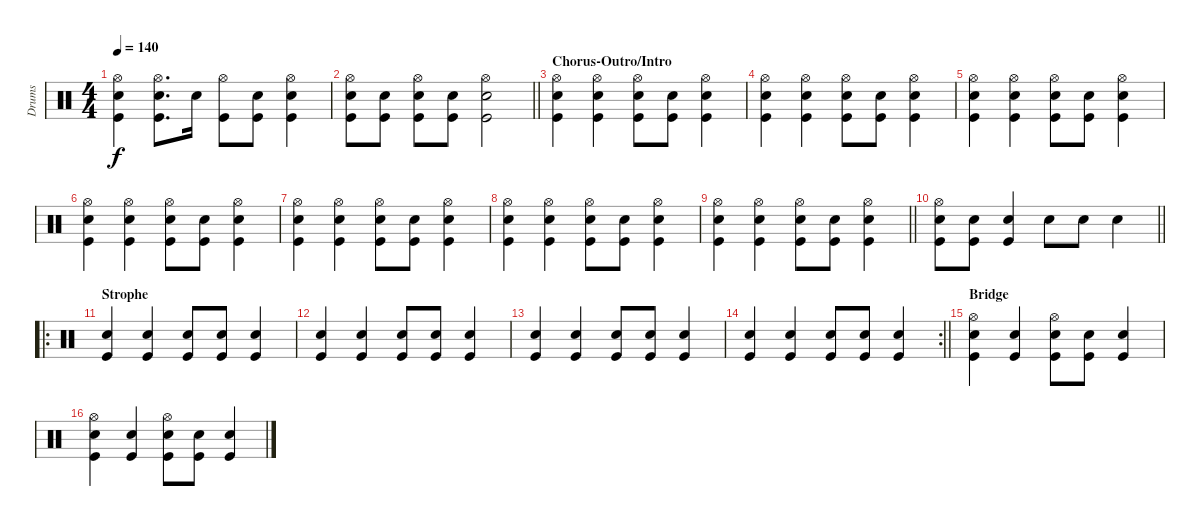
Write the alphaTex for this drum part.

\track ("Drums" "Drums") {instrument percussion}
\staff {score}
\articulation defaults
\ts (4 4)
\tempo 140
\clef neutral
\ks c
("Hi-Hat (open)" "Kick (hit)" "Snare (hit) 2").4{dy f} ("Hi-Hat (open)" "Kick (hit)" "Snare (hit) 2").8{d} "Snare (hit) 2".16 ("Hi-Hat (open)" "Kick (hit)").8 ("Kick (hit)" "Snare (hit) 2").8 ("Hi-Hat (open)" "Kick (hit)" "Snare (hit) 2").4 |
\barLineRight lightlight
("Hi-Hat (open)" "Kick (hit)" "Snare (hit) 2").8 ("Kick (hit)" "Snare (hit) 2").8 ("Hi-Hat (open)" "Kick (hit)" "Snare (hit) 2").8 ("Kick (hit)" "Snare (hit) 2").8 ("Hi-Hat (open)" "Kick (hit)" "Snare (hit) 2").2 |
\section ("" "Chorus-Outro/Intro")
("Kick (hit)" "Hi-Hat (open)" "Snare (hit) 2").4 ("Kick (hit)" "Hi-Hat (open)" "Snare (hit) 2").4 ("Kick (hit)" "Hi-Hat (open)" "Snare (hit) 2").8 ("Kick (hit)" "Snare (hit) 2").8 ("Kick (hit)" "Hi-Hat (open)" "Snare (hit) 2").4 |
("Kick (hit)" "Hi-Hat (open)" "Snare (hit) 2").4 ("Kick (hit)" "Hi-Hat (open)" "Snare (hit) 2").4 ("Kick (hit)" "Hi-Hat (open)" "Snare (hit) 2").8 ("Kick (hit)" "Snare (hit) 2").8 ("Kick (hit)" "Hi-Hat (open)" "Snare (hit) 2").4 |
("Kick (hit)" "Hi-Hat (open)" "Snare (hit) 2").4 ("Kick (hit)" "Hi-Hat (open)" "Snare (hit) 2").4 ("Kick (hit)" "Hi-Hat (open)" "Snare (hit) 2").8 ("Kick (hit)" "Snare (hit) 2").8 ("Kick (hit)" "Hi-Hat (open)" "Snare (hit) 2").4 |
("Kick (hit)" "Hi-Hat (open)" "Snare (hit) 2").4 ("Kick (hit)" "Hi-Hat (open)" "Snare (hit) 2").4 ("Kick (hit)" "Hi-Hat (open)" "Snare (hit) 2").8 ("Kick (hit)" "Snare (hit) 2").8 ("Kick (hit)" "Hi-Hat (open)" "Snare (hit) 2").4 |
("Kick (hit)" "Hi-Hat (open)" "Snare (hit) 2").4 ("Kick (hit)" "Hi-Hat (open)" "Snare (hit) 2").4 ("Kick (hit)" "Hi-Hat (open)" "Snare (hit) 2").8 ("Kick (hit)" "Snare (hit) 2").8 ("Kick (hit)" "Hi-Hat (open)" "Snare (hit) 2").4 |
("Kick (hit)" "Hi-Hat (open)" "Snare (hit) 2").4 ("Kick (hit)" "Hi-Hat (open)" "Snare (hit) 2").4 ("Kick (hit)" "Hi-Hat (open)" "Snare (hit) 2").8 ("Kick (hit)" "Snare (hit) 2").8 ("Kick (hit)" "Hi-Hat (open)" "Snare (hit) 2").4 |
\barLineRight lightlight
("Kick (hit)" "Hi-Hat (open)" "Snare (hit) 2").4 ("Kick (hit)" "Hi-Hat (open)" "Snare (hit) 2").4 ("Kick (hit)" "Hi-Hat (open)" "Snare (hit) 2").8 ("Kick (hit)" "Snare (hit) 2").8 ("Kick (hit)" "Hi-Hat (open)" "Snare (hit) 2").4 |
\barLineRight lightlight
("Kick (hit)" "Hi-Hat (open)" "Snare (hit) 2").8 ("Kick (hit)" "Snare (hit) 2").8 ("Kick (hit)" "Snare (hit) 2").4 "Snare (hit) 2".8 "Snare (hit) 2".8 "Snare (hit) 2".4 |
\ro
\section ("" "Strophe")
("Kick (hit)" "Snare (hit) 2").4 ("Kick (hit)" "Snare (hit) 2").4 ("Kick (hit)" "Snare (hit) 2").8 ("Kick (hit)" "Snare (hit) 2").8 ("Kick (hit)" "Snare (hit) 2").4 |
("Kick (hit)" "Snare (hit) 2").4 ("Kick (hit)" "Snare (hit) 2").4 ("Kick (hit)" "Snare (hit) 2").8 ("Kick (hit)" "Snare (hit) 2").8 ("Kick (hit)" "Snare (hit) 2").4 |
("Kick (hit)" "Snare (hit) 2").4 ("Kick (hit)" "Snare (hit) 2").4 ("Kick (hit)" "Snare (hit) 2").8 ("Kick (hit)" "Snare (hit) 2").8 ("Kick (hit)" "Snare (hit) 2").4 |
\rc 2
\barLineRight lightlight
("Kick (hit)" "Snare (hit) 2").4 ("Kick (hit)" "Snare (hit) 2").4 ("Kick (hit)" "Snare (hit) 2").8 ("Kick (hit)" "Snare (hit) 2").8 ("Kick (hit)" "Snare (hit) 2").4 |
\section ("" "Bridge")
("Kick (hit)" "Hi-Hat (open)" "Snare (hit) 2").4 ("Kick (hit)" "Snare (hit) 2").4 ("Kick (hit)" "Hi-Hat (open)" "Snare (hit) 2").8 ("Kick (hit)" "Snare (hit) 2").8 ("Kick (hit)" "Snare (hit) 2").4 |
("Kick (hit)" "Hi-Hat (open)" "Snare (hit) 2").4 ("Kick (hit)" "Snare (hit) 2").4 ("Kick (hit)" "Hi-Hat (open)" "Snare (hit) 2").8 ("Kick (hit)" "Snare (hit) 2").8 ("Kick (hit)" "Snare (hit) 2").4
